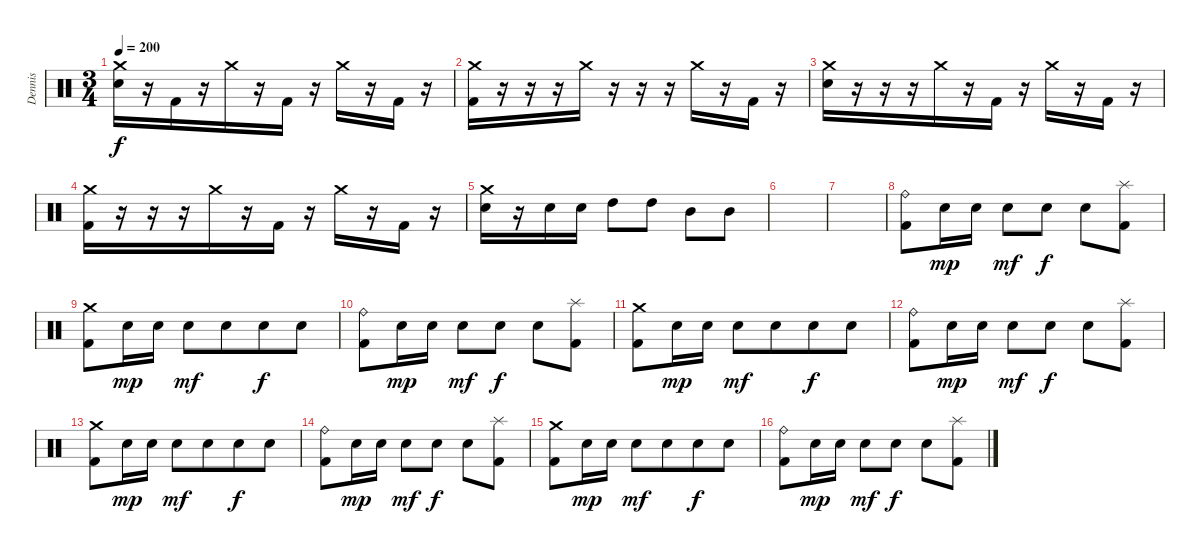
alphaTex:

\track ("Dennis" "Dennis") {instrument percussion}
\staff {score}
\articulation defaults
\ts (3 4)
\tempo 200
\clef neutral
\ks c
("Crash medium (hit)" "Electric Snare (hit)").16{dy f beam merge} r.16 "Kick (hit) 2".16{beam merge} r.16 "Crash medium (hit)".16 r.16 "Kick (hit) 2".16 r.16 "Crash medium (hit)".16{beam merge} r.16 "Kick (hit) 2".16 r.16 |
("Crash medium (hit)" "Kick (hit) 2").16{beam merge} r.16 r.16{beam merge} r.16 "Crash medium (hit)".16 r.16 r.16 r.16 "Crash medium (hit)".16{beam merge} r.16 "Kick (hit) 2".16 r.16 |
("Crash medium (hit)" "Electric Snare (hit)").16{beam merge} r.16 r.16{beam merge} r.16 "Crash medium (hit)".16 r.16 "Kick (hit) 2".16 r.16 "Crash medium (hit)".16{beam merge} r.16 "Kick (hit) 2".16 r.16 |
("Crash medium (hit)" "Kick (hit) 2").16{beam merge} r.16 r.16{beam merge} r.16 "Crash medium (hit)".16 r.16 "Kick (hit) 2".16 r.16 "Crash medium (hit)".16{beam merge} r.16 "Kick (hit) 2".16 r.16 |
("Crash medium (hit)" "Electric Snare (hit)").16{beam merge} r.16 "Electric Snare (hit)".16{beam merge} "Electric Snare (hit)".16 "High Tom (hit)".8{beam merge} "High Tom (hit)".8 "Mid Tom (hit)".8 "Mid Tom (hit)".8 |
|
|
("Ride (bell)" "Kick (hit) 2").8 "Electric Snare (hit)".16{dy mp} "Electric Snare (hit)".16 "Electric Snare (hit)".8{dy mf} "Electric Snare (hit)".8{dy f} "Electric Snare (hit)".8 ("Splash (hit)" "Kick (hit) 2").8 |
("Crash medium (hit)" "Kick (hit) 2").8{beam merge} "Electric Snare (hit)".16{dy mp} "Electric Snare (hit)".16 "Electric Snare (hit)".8{dy mf beam merge} "Electric Snare (hit)".8{beam merge} "Electric Snare (hit)".8{dy f} "Electric Snare (hit)".8 |
("Ride (bell)" "Kick (hit) 2").8 "Electric Snare (hit)".16{dy mp} "Electric Snare (hit)".16 "Electric Snare (hit)".8{dy mf} "Electric Snare (hit)".8{dy f} "Electric Snare (hit)".8 ("Splash (hit)" "Kick (hit) 2").8 |
("Crash medium (hit)" "Kick (hit) 2").8{beam merge} "Electric Snare (hit)".16{dy mp} "Electric Snare (hit)".16 "Electric Snare (hit)".8{dy mf beam merge} "Electric Snare (hit)".8{beam merge} "Electric Snare (hit)".8{dy f} "Electric Snare (hit)".8 |
("Ride (bell)" "Kick (hit) 2").8 "Electric Snare (hit)".16{dy mp} "Electric Snare (hit)".16 "Electric Snare (hit)".8{dy mf} "Electric Snare (hit)".8{dy f} "Electric Snare (hit)".8 ("Splash (hit)" "Kick (hit) 2").8 |
("Crash medium (hit)" "Kick (hit) 2").8{beam merge} "Electric Snare (hit)".16{dy mp} "Electric Snare (hit)".16 "Electric Snare (hit)".8{dy mf beam merge} "Electric Snare (hit)".8{beam merge} "Electric Snare (hit)".8{dy f} "Electric Snare (hit)".8 |
("Ride (bell)" "Kick (hit) 2").8 "Electric Snare (hit)".16{dy mp} "Electric Snare (hit)".16 "Electric Snare (hit)".8{dy mf} "Electric Snare (hit)".8{dy f} "Electric Snare (hit)".8 ("Splash (hit)" "Kick (hit) 2").8 |
("Crash medium (hit)" "Kick (hit) 2").8{beam merge} "Electric Snare (hit)".16{dy mp} "Electric Snare (hit)".16 "Electric Snare (hit)".8{dy mf beam merge} "Electric Snare (hit)".8{beam merge} "Electric Snare (hit)".8{dy f} "Electric Snare (hit)".8 |
("Ride (bell)" "Kick (hit) 2").8 "Electric Snare (hit)".16{dy mp} "Electric Snare (hit)".16 "Electric Snare (hit)".8{dy mf} "Electric Snare (hit)".8{dy f} "Electric Snare (hit)".8 ("Splash (hit)" "Kick (hit) 2").8
